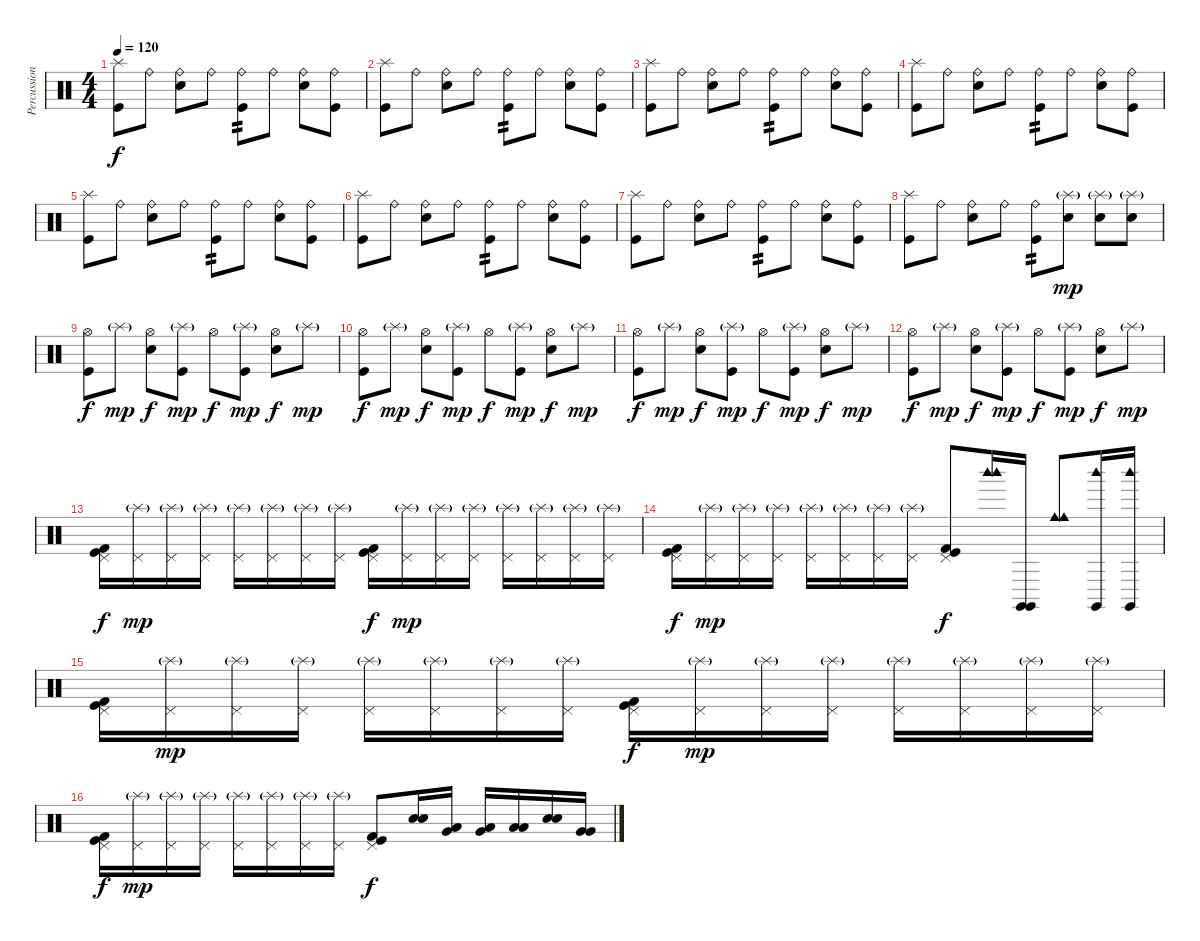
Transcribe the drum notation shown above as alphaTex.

\track ("Percussion" "Percussion") {instrument percussion}
\staff {score}
\articulation defaults
\ts (4 4)
\tempo 120
\clef neutral
\ks c
("Kick (hit)" "Splash (hit)").8{dy f} "Ride (bell)".8 ("Electric Snare (hit)" "Ride (bell)").8 "Ride (bell)".8 ("Kick (hit)" "Ride (bell)").8{tp 2} "Ride (bell)".8 ("Electric Snare (hit)" "Ride (bell)").8 ("Kick (hit)" "Ride (bell)").8 |
("Kick (hit)" "Splash (hit)").8 "Ride (bell)".8 ("Electric Snare (hit)" "Ride (bell)").8 "Ride (bell)".8 ("Kick (hit)" "Ride (bell)").8{tp 2} "Ride (bell)".8 ("Electric Snare (hit)" "Ride (bell)").8 ("Kick (hit)" "Ride (bell)").8 |
("Kick (hit)" "Splash (hit)").8 "Ride (bell)".8 ("Electric Snare (hit)" "Ride (bell)").8 "Ride (bell)".8 ("Kick (hit)" "Ride (bell)").8{tp 2} "Ride (bell)".8 ("Electric Snare (hit)" "Ride (bell)").8 ("Kick (hit)" "Ride (bell)").8 |
("Kick (hit)" "Splash (hit)").8 "Ride (bell)".8 ("Electric Snare (hit)" "Ride (bell)").8 "Ride (bell)".8 ("Kick (hit)" "Ride (bell)").8{tp 2} "Ride (bell)".8 ("Electric Snare (hit)" "Ride (bell)").8 ("Kick (hit)" "Ride (bell)").8 |
("Kick (hit)" "Splash (hit)").8 "Ride (bell)".8 ("Electric Snare (hit)" "Ride (bell)").8 "Ride (bell)".8 ("Kick (hit)" "Ride (bell)").8{tp 2} "Ride (bell)".8 ("Electric Snare (hit)" "Ride (bell)").8 ("Kick (hit)" "Ride (bell)").8 |
("Kick (hit)" "Splash (hit)").8 "Ride (bell)".8 ("Electric Snare (hit)" "Ride (bell)").8 "Ride (bell)".8 ("Kick (hit)" "Ride (bell)").8{tp 2} "Ride (bell)".8 ("Electric Snare (hit)" "Ride (bell)").8 ("Kick (hit)" "Ride (bell)").8 |
("Kick (hit)" "Splash (hit)").8 "Ride (bell)".8 ("Electric Snare (hit)" "Ride (bell)").8 "Ride (bell)".8 ("Kick (hit)" "Ride (bell)").8{tp 2} "Ride (bell)".8 ("Electric Snare (hit)" "Ride (bell)").8 ("Kick (hit)" "Ride (bell)").8 |
("Kick (hit)" "Splash (hit)").8 "Ride (bell)".8 ("Electric Snare (hit)" "Ride (bell)").8 "Ride (bell)".8 ("Kick (hit)" "Ride (bell)").8{tp 2} ("Electric Snare (hit)" "Splash (hit)"{g}).8{dy mp} ("Electric Snare (hit)" "Splash (hit)"{g}).8 ("Electric Snare (hit)" "Splash (hit)"{g}).8 |
("Hi-Hat (open)" "Kick (hit)").8{dy f} "Splash (hit)"{g}.8{dy mp} ("Hi-Hat (open)" "Electric Snare (hit)").8{dy f} ("Splash (hit)"{g} "Kick (hit)").8{dy mp} "Hi-Hat (open)".8{dy f} ("Splash (hit)"{g} "Kick (hit)").8{dy mp} ("Hi-Hat (open)" "Electric Snare (hit)").8{dy f} "Splash (hit)"{g}.8{dy mp} |
("Hi-Hat (open)" "Kick (hit)").8{dy f} "Splash (hit)"{g}.8{dy mp} ("Hi-Hat (open)" "Electric Snare (hit)").8{dy f} ("Splash (hit)"{g} "Kick (hit)").8{dy mp} "Hi-Hat (open)".8{dy f} ("Splash (hit)"{g} "Kick (hit)").8{dy mp} ("Hi-Hat (open)" "Electric Snare (hit)").8{dy f} "Splash (hit)"{g}.8{dy mp} |
("Hi-Hat (open)" "Kick (hit)").8{dy f} "Splash (hit)"{g}.8{dy mp} ("Hi-Hat (open)" "Electric Snare (hit)").8{dy f} ("Splash (hit)"{g} "Kick (hit)").8{dy mp} "Hi-Hat (open)".8{dy f} ("Splash (hit)"{g} "Kick (hit)").8{dy mp} ("Hi-Hat (open)" "Electric Snare (hit)").8{dy f} "Splash (hit)"{g}.8{dy mp} |
("Hi-Hat (open)" "Kick (hit)").8{dy f} "Splash (hit)"{g}.8{dy mp} ("Hi-Hat (open)" "Electric Snare (hit)").8{dy f} ("Splash (hit)"{g} "Kick (hit)").8{dy mp} "Hi-Hat (open)".8{dy f} ("Splash (hit)"{g} "Kick (hit)").8{dy mp} ("Hi-Hat (open)" "Electric Snare (hit)").8{dy f} "Splash (hit)"{g}.8{dy mp} |
("Kick (hit) 2" "Pedal Hi-Hat (hit)" "Kick (hit)").16{dy f} ("Pedal Hi-Hat (hit)" "Splash (hit)"{g}).16{dy mp} ("Pedal Hi-Hat (hit)" "Splash (hit)"{g}).16 ("Pedal Hi-Hat (hit)" "Splash (hit)"{g}).16 ("Pedal Hi-Hat (hit)" "Splash (hit)"{g}).16 ("Pedal Hi-Hat (hit)" "Splash (hit)"{g}).16 ("Pedal Hi-Hat (hit)" "Splash (hit)"{g}).16 ("Pedal Hi-Hat (hit)" "Splash (hit)"{g}).16 ("Kick (hit) 2" "Pedal Hi-Hat (hit)" "Kick (hit)").16{dy f} ("Pedal Hi-Hat (hit)" "Splash (hit)"{g}).16{dy mp} ("Pedal Hi-Hat (hit)" "Splash (hit)"{g}).16 ("Pedal Hi-Hat (hit)" "Splash (hit)"{g}).16 ("Pedal Hi-Hat (hit)" "Splash (hit)"{g}).16 ("Pedal Hi-Hat (hit)" "Splash (hit)"{g}).16 ("Pedal Hi-Hat (hit)" "Splash (hit)"{g}).16 ("Pedal Hi-Hat (hit)" "Splash (hit)"{g}).16 |
("Kick (hit) 2" "Pedal Hi-Hat (hit)" "Kick (hit)").16{dy f} ("Pedal Hi-Hat (hit)" "Splash (hit)"{g}).16{dy mp} ("Pedal Hi-Hat (hit)" "Splash (hit)"{g}).16 ("Pedal Hi-Hat (hit)" "Splash (hit)"{g}).16 ("Pedal Hi-Hat (hit)" "Splash (hit)"{g}).16 ("Pedal Hi-Hat (hit)" "Splash (hit)"{g}).16 ("Pedal Hi-Hat (hit)" "Splash (hit)"{g}).16 ("Pedal Hi-Hat (hit)" "Splash (hit)"{g}).16 ("Kick (hit) 2" "Pedal Hi-Hat (hit)" "Kick (hit)").8{dy f} ("Woodblock high (hit)" "Woodblock high (hit)").16 ("Claves (hit)" "Claves (hit)").16 ("Cowbell medium (hit)" "Cowbell medium (hit)").8 ("Claves (hit)" "Woodblock high (hit)").16 ("Claves (hit)" "Woodblock high (hit)").16 |
("Kick (hit) 2" "Pedal Hi-Hat (hit)" "Kick (hit)").16 ("Pedal Hi-Hat (hit)" "Splash (hit)"{g}).16{dy mp} ("Pedal Hi-Hat (hit)" "Splash (hit)"{g}).16 ("Pedal Hi-Hat (hit)" "Splash (hit)"{g}).16 ("Pedal Hi-Hat (hit)" "Splash (hit)"{g}).16 ("Pedal Hi-Hat (hit)" "Splash (hit)"{g}).16 ("Pedal Hi-Hat (hit)" "Splash (hit)"{g}).16 ("Pedal Hi-Hat (hit)" "Splash (hit)"{g}).16 ("Kick (hit) 2" "Pedal Hi-Hat (hit)" "Kick (hit)").16{dy f} ("Pedal Hi-Hat (hit)" "Splash (hit)"{g}).16{dy mp} ("Pedal Hi-Hat (hit)" "Splash (hit)"{g}).16 ("Pedal Hi-Hat (hit)" "Splash (hit)"{g}).16 ("Pedal Hi-Hat (hit)" "Splash (hit)"{g}).16 ("Pedal Hi-Hat (hit)" "Splash (hit)"{g}).16 ("Pedal Hi-Hat (hit)" "Splash (hit)"{g}).16 ("Pedal Hi-Hat (hit)" "Splash (hit)"{g}).16 |
("Kick (hit) 2" "Pedal Hi-Hat (hit)" "Kick (hit)").16{dy f} ("Pedal Hi-Hat (hit)" "Splash (hit)"{g}).16{dy mp} ("Pedal Hi-Hat (hit)" "Splash (hit)"{g}).16 ("Pedal Hi-Hat (hit)" "Splash (hit)"{g}).16 ("Pedal Hi-Hat (hit)" "Splash (hit)"{g}).16 ("Pedal Hi-Hat (hit)" "Splash (hit)"{g}).16 ("Pedal Hi-Hat (hit)" "Splash (hit)"{g}).16 ("Pedal Hi-Hat (hit)" "Splash (hit)"{g}).16 ("Kick (hit) 2" "Pedal Hi-Hat (hit)" "Kick (hit)").8{dy f} ("Electric Snare (hit)" "Electric Snare (hit)").16 ("Low Floor Tom (hit)" "Very Low Tom (hit)").16 ("Low Floor Tom (hit)" "Very Low Tom (hit)").16 ("Low Floor Tom (hit)" "Low Floor Tom (hit)").16 ("Electric Snare (hit)" "Electric Snare (hit)").16 ("Very Low Tom (hit)" "Very Low Tom (hit)").16
